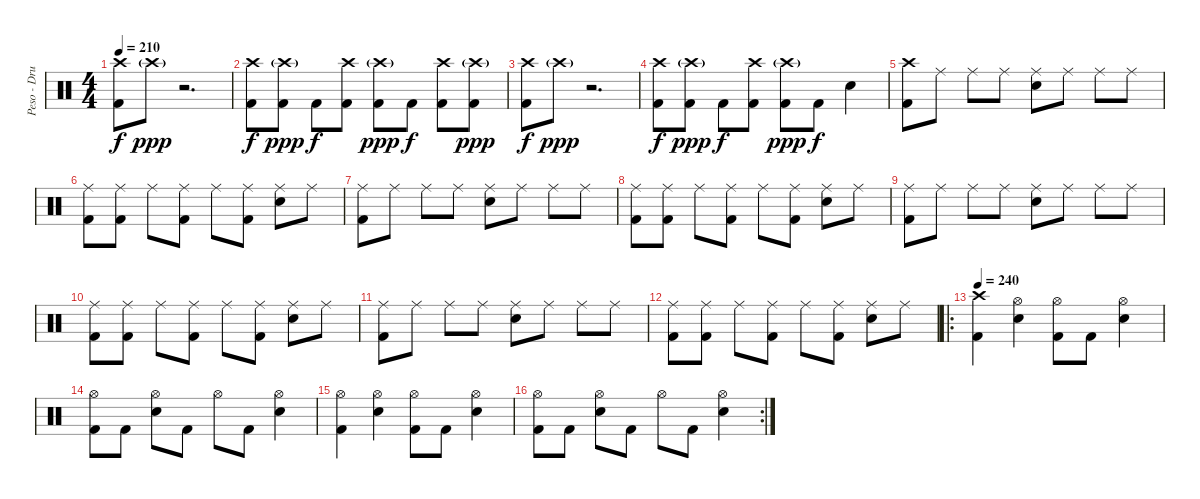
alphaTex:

\track ("Peso - Drums" "Peso - Dru") {instrument percussion}
\staff {score}
\articulation defaults
\ts (4 4)
\tempo 210
\clef neutral
\ks c
("Crash high (hit)" "Kick (hit) 2").8{dy f} "Crash high (hit)"{g}.8{dy ppp} r.2{d} |
("Crash high (hit)" "Kick (hit) 2").8{dy f} ("Crash high (hit)"{g} "Kick (hit) 2").8{dy ppp} "Kick (hit) 2".8{dy f} ("Crash high (hit)" "Kick (hit) 2").8 ("Crash high (hit)"{g} "Kick (hit) 2").8{dy ppp} "Kick (hit) 2".8{dy f} ("Crash high (hit)" "Kick (hit) 2").8 ("Crash high (hit)"{g} "Kick (hit) 2").8{dy ppp} |
("Crash high (hit)" "Kick (hit) 2").8{dy f} "Crash high (hit)"{g}.8{dy ppp} r.2{d} |
("Crash high (hit)" "Kick (hit) 2").8{dy f} ("Crash high (hit)"{g} "Kick (hit) 2").8{dy ppp} "Kick (hit) 2".8{dy f} ("Crash high (hit)" "Kick (hit) 2").8 ("Crash high (hit)"{g} "Kick (hit) 2").8{dy ppp} "Kick (hit) 2".8{dy f} "Electric Snare (hit)".4 |
("Crash high (hit)" "Kick (hit) 2").8 "Ride (middle)".8 "Ride (middle)".8 "Ride (middle)".8 ("Ride (middle)" "Electric Snare (hit)").8 "Ride (middle)".8 "Ride (middle)".8 "Ride (middle)".8 |
("Ride (middle)" "Kick (hit) 2").8 ("Ride (middle)" "Kick (hit) 2").8 "Ride (middle)".8 ("Ride (middle)" "Kick (hit) 2").8 "Ride (middle)".8 ("Ride (middle)" "Kick (hit) 2").8 ("Ride (middle)" "Electric Snare (hit)").8 "Ride (middle)".8 |
("Ride (middle)" "Kick (hit) 2").8 "Ride (middle)".8 "Ride (middle)".8 "Ride (middle)".8 ("Ride (middle)" "Electric Snare (hit)").8 "Ride (middle)".8 "Ride (middle)".8 "Ride (middle)".8 |
("Ride (middle)" "Kick (hit) 2").8 ("Ride (middle)" "Kick (hit) 2").8 "Ride (middle)".8 ("Ride (middle)" "Kick (hit) 2").8 "Ride (middle)".8 ("Ride (middle)" "Kick (hit) 2").8 ("Ride (middle)" "Electric Snare (hit)").8 "Ride (middle)".8 |
("Ride (middle)" "Kick (hit) 2").8 "Ride (middle)".8 "Ride (middle)".8 "Ride (middle)".8 ("Ride (middle)" "Electric Snare (hit)").8 "Ride (middle)".8 "Ride (middle)".8 "Ride (middle)".8 |
("Ride (middle)" "Kick (hit) 2").8 ("Ride (middle)" "Kick (hit) 2").8 "Ride (middle)".8 ("Ride (middle)" "Kick (hit) 2").8 "Ride (middle)".8 ("Ride (middle)" "Kick (hit) 2").8 ("Ride (middle)" "Electric Snare (hit)").8 "Ride (middle)".8 |
("Ride (middle)" "Kick (hit) 2").8 "Ride (middle)".8 "Ride (middle)".8 "Ride (middle)".8 ("Ride (middle)" "Electric Snare (hit)").8 "Ride (middle)".8 "Ride (middle)".8 "Ride (middle)".8 |
("Ride (middle)" "Kick (hit) 2").8 ("Ride (middle)" "Kick (hit) 2").8 "Ride (middle)".8 ("Ride (middle)" "Kick (hit) 2").8 "Ride (middle)".8 ("Ride (middle)" "Kick (hit) 2").8 ("Ride (middle)" "Electric Snare (hit)").8 "Ride (middle)".8 |
\ro
\tempo 240
("Crash high (hit)" "Kick (hit) 2").4 ("Hi-Hat (open)" "Electric Snare (hit)").4 ("Hi-Hat (open)" "Kick (hit) 2").8 "Kick (hit) 2".8 ("Hi-Hat (open)" "Electric Snare (hit)").4 |
("Hi-Hat (open)" "Kick (hit) 2").8 "Kick (hit) 2".8 ("Hi-Hat (open)" "Electric Snare (hit)").8 "Kick (hit) 2".8 "Hi-Hat (open)".8 "Kick (hit) 2".8 ("Hi-Hat (open)" "Electric Snare (hit)").4 |
("Hi-Hat (open)" "Kick (hit) 2").4 ("Hi-Hat (open)" "Electric Snare (hit)").4 ("Hi-Hat (open)" "Kick (hit) 2").8 "Kick (hit) 2".8 ("Hi-Hat (open)" "Electric Snare (hit)").4 |
\rc 2
("Hi-Hat (open)" "Kick (hit) 2").8 "Kick (hit) 2".8 ("Hi-Hat (open)" "Electric Snare (hit)").8 "Kick (hit) 2".8 "Hi-Hat (open)".8 "Kick (hit) 2".8 ("Hi-Hat (open)" "Electric Snare (hit)").4
